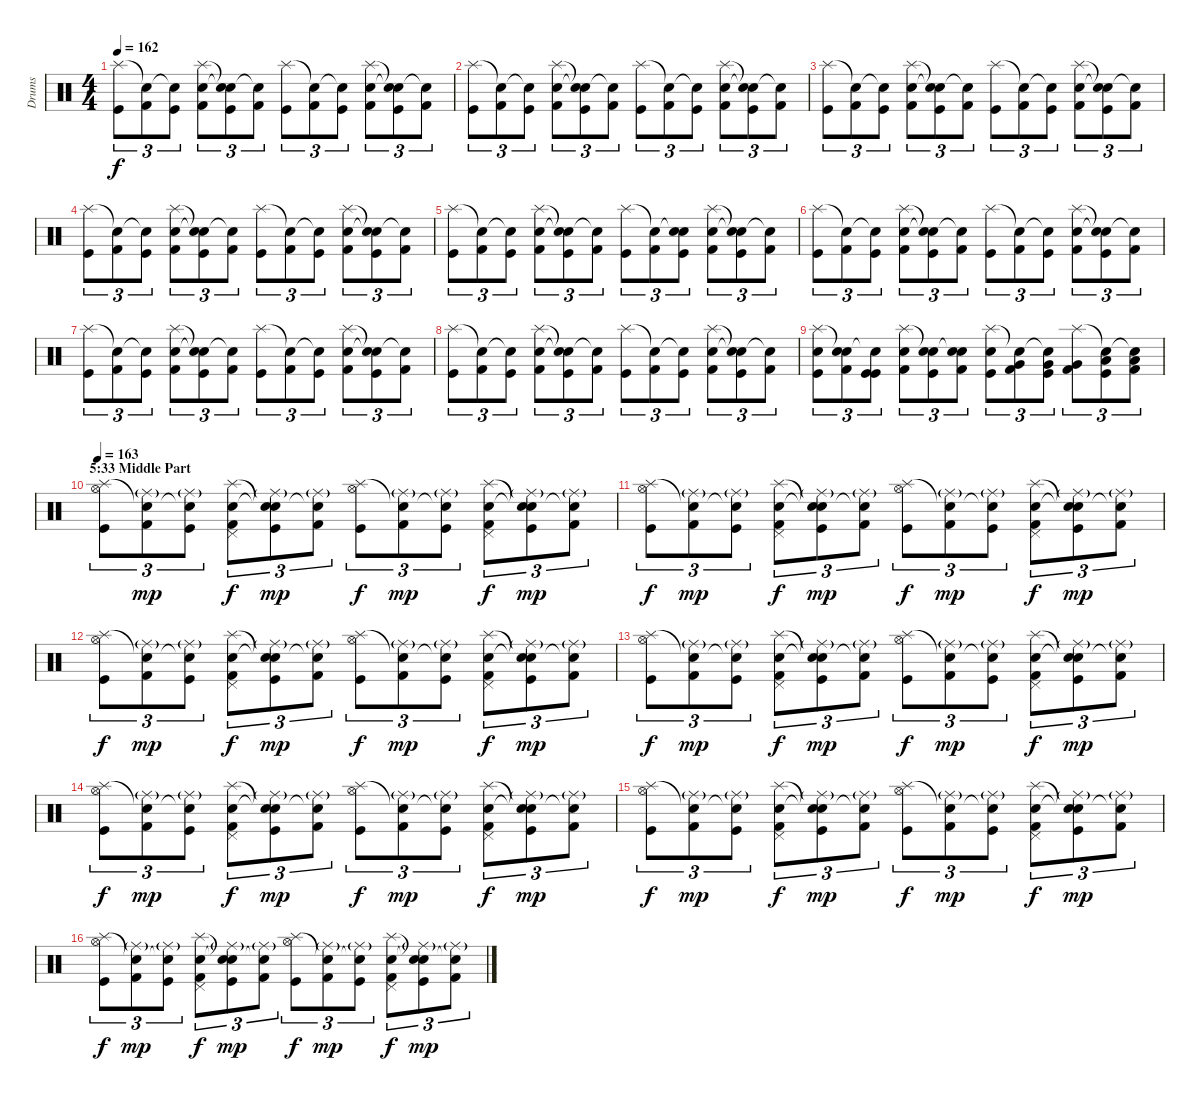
\track ("Drums" "Drums") {instrument percussion}
\staff {score}
\articulation defaults
\ts (4 4)
\tempo 162
\clef neutral
\ks c
("Splash (hit)" "Kick (hit)").8{tu (3 2) dy f} ("Snare (hit)"{t} "Kick (hit) 2").8{tu (3 2)} ("Snare (hit)"{t} "Kick (hit)").8{tu (3 2)} ("Splash (hit)" "Snare (hit) 2" "Kick (hit) 2").8{tu (3 2)} ("Snare (hit)"{t} "Snare (hit)"{t} "Kick (hit)").8{tu (3 2)} ("Snare (hit)"{t} "Kick (hit) 2").8{tu (3 2)} ("Splash (hit)" "Kick (hit)").8{tu (3 2)} ("Snare (hit)"{t} "Kick (hit) 2").8{tu (3 2)} ("Snare (hit)"{t} "Kick (hit)").8{tu (3 2)} ("Splash (hit)" "Snare (hit) 2" "Kick (hit) 2").8{tu (3 2)} ("Snare (hit)"{t} "Snare (hit)"{t} "Kick (hit)").8{tu (3 2)} ("Snare (hit)"{t} "Kick (hit) 2").8{tu (3 2)} |
("Splash (hit)" "Kick (hit)").8{tu (3 2)} ("Snare (hit)"{t} "Kick (hit) 2").8{tu (3 2)} ("Snare (hit)"{t} "Kick (hit)").8{tu (3 2)} ("Splash (hit)" "Snare (hit) 2" "Kick (hit) 2").8{tu (3 2)} ("Snare (hit)"{t} "Snare (hit)"{t} "Kick (hit)").8{tu (3 2)} ("Snare (hit)"{t} "Kick (hit) 2").8{tu (3 2)} ("Splash (hit)" "Kick (hit)").8{tu (3 2)} ("Snare (hit)"{t} "Kick (hit) 2").8{tu (3 2)} ("Snare (hit)"{t} "Kick (hit)").8{tu (3 2)} ("Splash (hit)" "Snare (hit) 2" "Kick (hit) 2").8{tu (3 2)} ("Snare (hit)"{t} "Snare (hit)"{t} "Kick (hit)").8{tu (3 2)} ("Snare (hit)"{t} "Kick (hit) 2").8{tu (3 2)} |
("Splash (hit)" "Kick (hit)").8{tu (3 2)} ("Snare (hit)"{t} "Kick (hit) 2").8{tu (3 2)} ("Snare (hit)"{t} "Kick (hit)").8{tu (3 2)} ("Splash (hit)" "Snare (hit) 2" "Kick (hit) 2").8{tu (3 2)} ("Snare (hit)"{t} "Snare (hit)"{t} "Kick (hit)").8{tu (3 2)} ("Snare (hit)"{t} "Kick (hit) 2").8{tu (3 2)} ("Splash (hit)" "Kick (hit)").8{tu (3 2)} ("Snare (hit)"{t} "Kick (hit) 2").8{tu (3 2)} ("Snare (hit)"{t} "Kick (hit)").8{tu (3 2)} ("Splash (hit)" "Snare (hit) 2" "Kick (hit) 2").8{tu (3 2)} ("Snare (hit)"{t} "Snare (hit)"{t} "Kick (hit)").8{tu (3 2)} ("Snare (hit)"{t} "Kick (hit) 2").8{tu (3 2)} |
("Splash (hit)" "Kick (hit)").8{tu (3 2)} ("Snare (hit)"{t} "Kick (hit) 2").8{tu (3 2)} ("Snare (hit)"{t} "Kick (hit)").8{tu (3 2)} ("Splash (hit)" "Snare (hit) 2" "Kick (hit) 2").8{tu (3 2)} ("Snare (hit)"{t} "Snare (hit)"{t} "Kick (hit)").8{tu (3 2)} ("Snare (hit)"{t} "Kick (hit) 2").8{tu (3 2)} ("Splash (hit)" "Kick (hit)").8{tu (3 2)} ("Snare (hit)"{t} "Kick (hit) 2").8{tu (3 2)} ("Snare (hit)"{t} "Kick (hit)").8{tu (3 2)} ("Splash (hit)" "Snare (hit) 2" "Kick (hit) 2").8{tu (3 2)} ("Snare (hit)"{t} "Snare (hit)"{t} "Kick (hit)").8{tu (3 2)} ("Snare (hit)"{t} "Kick (hit) 2").8{tu (3 2)} |
("Splash (hit)" "Kick (hit)").8{tu (3 2)} ("Snare (hit)"{t} "Kick (hit) 2").8{tu (3 2)} ("Snare (hit)"{t} "Kick (hit)").8{tu (3 2)} ("Splash (hit)" "Snare (hit) 2" "Kick (hit) 2").8{tu (3 2)} ("Snare (hit)"{t} "Snare (hit)"{t} "Kick (hit)").8{tu (3 2)} ("Snare (hit)"{t} "Kick (hit) 2").8{tu (3 2)} ("Splash (hit)" "Kick (hit)").8{tu (3 2)} ("Snare (hit)"{t} "Kick (hit) 2").8{tu (3 2)} ("Snare (hit)"{t} "Snare (hit) 2" "Kick (hit)").8{tu (3 2)} ("Splash (hit)" "Snare (hit) 2" "Kick (hit) 2").8{tu (3 2)} ("Snare (hit)"{t} "Snare (hit)"{t} "Kick (hit)").8{tu (3 2)} ("Snare (hit)"{t} "Kick (hit) 2").8{tu (3 2)} |
("Splash (hit)" "Kick (hit)").8{tu (3 2)} ("Snare (hit)"{t} "Kick (hit) 2").8{tu (3 2)} ("Snare (hit)"{t} "Kick (hit)").8{tu (3 2)} ("Splash (hit)" "Snare (hit) 2" "Kick (hit) 2").8{tu (3 2)} ("Snare (hit)"{t} "Snare (hit)"{t} "Kick (hit)").8{tu (3 2)} ("Snare (hit)"{t} "Kick (hit) 2").8{tu (3 2)} ("Splash (hit)" "Kick (hit)").8{tu (3 2)} ("Snare (hit)"{t} "Kick (hit) 2").8{tu (3 2)} ("Snare (hit)"{t} "Kick (hit)").8{tu (3 2)} ("Splash (hit)" "Snare (hit) 2" "Kick (hit) 2").8{tu (3 2)} ("Snare (hit)"{t} "Snare (hit)"{t} "Kick (hit)").8{tu (3 2)} ("Snare (hit)"{t} "Kick (hit) 2").8{tu (3 2)} |
("Splash (hit)" "Kick (hit)").8{tu (3 2)} ("Snare (hit)"{t} "Kick (hit) 2").8{tu (3 2)} ("Snare (hit)"{t} "Kick (hit)").8{tu (3 2)} ("Splash (hit)" "Snare (hit) 2" "Kick (hit) 2").8{tu (3 2)} ("Snare (hit)"{t} "Snare (hit)"{t} "Kick (hit)").8{tu (3 2)} ("Snare (hit)"{t} "Kick (hit) 2").8{tu (3 2)} ("Splash (hit)" "Kick (hit)").8{tu (3 2)} ("Snare (hit)"{t} "Kick (hit) 2").8{tu (3 2)} ("Snare (hit)"{t} "Kick (hit)").8{tu (3 2)} ("Splash (hit)" "Snare (hit) 2" "Kick (hit) 2").8{tu (3 2)} ("Snare (hit)"{t} "Snare (hit)"{t} "Kick (hit)").8{tu (3 2)} ("Snare (hit)"{t} "Kick (hit) 2").8{tu (3 2)} |
("Splash (hit)" "Kick (hit)").8{tu (3 2)} ("Snare (hit)"{t} "Kick (hit) 2").8{tu (3 2)} ("Snare (hit)"{t} "Kick (hit)").8{tu (3 2)} ("Splash (hit)" "Snare (hit) 2" "Kick (hit) 2").8{tu (3 2)} ("Snare (hit)"{t} "Snare (hit)"{t} "Kick (hit)").8{tu (3 2)} ("Snare (hit)"{t} "Kick (hit) 2").8{tu (3 2)} ("Splash (hit)" "Kick (hit)").8{tu (3 2)} ("Snare (hit)"{t} "Kick (hit) 2").8{tu (3 2)} ("Snare (hit)"{t} "Kick (hit)").8{tu (3 2)} ("Splash (hit)" "Snare (hit) 2" "Kick (hit) 2").8{tu (3 2)} ("Snare (hit)"{t} "Snare (hit)"{t} "Kick (hit)").8{tu (3 2)} ("Snare (hit)"{t} "Kick (hit) 2").8{tu (3 2)} |
("Splash (hit)" "Snare (hit) 2" "Kick (hit)").8{tu (3 2)} ("Snare (hit)"{t} "Snare (hit) 2" "Kick (hit) 2").8{tu (3 2)} ("Snare (hit)"{t} "Kick (hit)" "Kick (hit)").8{tu (3 2)} ("Splash (hit)" "Snare (hit) 2" "Kick (hit) 2").8{tu (3 2)} ("Snare (hit)"{t} "Snare (hit) 2" "Kick (hit)").8{tu (3 2)} ("Snare (hit)"{t} "Snare (hit) 2" "Kick (hit) 2").8{tu (3 2)} ("Splash (hit)" "Snare (hit) 2" "Kick (hit)").8{tu (3 2)} ("Snare (hit)"{t} "Very Low Tom (hit)" "Kick (hit) 2").8{tu (3 2)} ("Snare (hit)"{t} "Very Low Tom (hit)" "Kick (hit)").8{tu (3 2)} ("Splash (hit)" "Very Low Tom (hit)" "Kick (hit) 2").8{tu (3 2)} ("Snare (hit)"{t} "Low Floor Tom (hit)" "Kick (hit)").8{tu (3 2)} ("Snare (hit)"{t} "Low Floor Tom (hit)" "Kick (hit) 2").8{tu (3 2)} |
\section ("" "5:33 Middle Part")
\tempo 163
("Splash (hit)" "Hi-Hat (open)" "Kick (hit)").8{tu (3 2) volume 16} ("Snare (hit)"{t} "Ride (middle)"{g} "Kick (hit) 2").8{tu (3 2) dy mp} ("Snare (hit)"{t} "Ride (middle)"{g} "Kick (hit)").8{tu (3 2)} ("Splash (hit)" "Pedal Hi-Hat (hit)" "Snare (hit) 2" "Kick (hit) 2").8{tu (3 2) dy f} ("Snare (hit)"{t} "Ride (middle)"{g} "Snare (hit)"{t} "Kick (hit)").8{tu (3 2) dy mp} ("Snare (hit)"{t} "Ride (middle)"{g} "Kick (hit) 2").8{tu (3 2)} ("Splash (hit)" "Hi-Hat (open)" "Kick (hit)").8{tu (3 2) dy f} ("Snare (hit)"{t} "Ride (middle)"{g} "Kick (hit) 2").8{tu (3 2) dy mp} ("Snare (hit)"{t} "Ride (middle)"{g} "Kick (hit)").8{tu (3 2)} ("Splash (hit)" "Pedal Hi-Hat (hit)" "Snare (hit) 2" "Kick (hit) 2").8{tu (3 2) dy f} ("Snare (hit)"{t} "Ride (middle)"{g} "Snare (hit)"{t} "Kick (hit)").8{tu (3 2) dy mp} ("Snare (hit)"{t} "Ride (middle)"{g} "Kick (hit) 2").8{tu (3 2)} |
("Splash (hit)" "Hi-Hat (open)" "Kick (hit)").8{tu (3 2) dy f} ("Snare (hit)"{t} "Ride (middle)"{g} "Kick (hit) 2").8{tu (3 2) dy mp} ("Snare (hit)"{t} "Ride (middle)"{g} "Kick (hit)").8{tu (3 2)} ("Splash (hit)" "Pedal Hi-Hat (hit)" "Snare (hit) 2" "Kick (hit) 2").8{tu (3 2) dy f} ("Snare (hit)"{t} "Ride (middle)"{g} "Snare (hit)"{t} "Kick (hit)").8{tu (3 2) dy mp} ("Snare (hit)"{t} "Ride (middle)"{g} "Kick (hit) 2").8{tu (3 2)} ("Splash (hit)" "Hi-Hat (open)" "Kick (hit)").8{tu (3 2) dy f} ("Snare (hit)"{t} "Ride (middle)"{g} "Kick (hit) 2").8{tu (3 2) dy mp} ("Snare (hit)"{t} "Ride (middle)"{g} "Kick (hit)").8{tu (3 2)} ("Splash (hit)" "Pedal Hi-Hat (hit)" "Snare (hit) 2" "Kick (hit) 2").8{tu (3 2) dy f} ("Snare (hit)"{t} "Ride (middle)"{g} "Snare (hit)"{t} "Kick (hit)").8{tu (3 2) dy mp} ("Snare (hit)"{t} "Ride (middle)"{g} "Kick (hit) 2").8{tu (3 2)} |
("Splash (hit)" "Hi-Hat (open)" "Kick (hit)").8{tu (3 2) dy f} ("Snare (hit)"{t} "Ride (middle)"{g} "Kick (hit) 2").8{tu (3 2) dy mp} ("Snare (hit)"{t} "Ride (middle)"{g} "Kick (hit)").8{tu (3 2)} ("Splash (hit)" "Pedal Hi-Hat (hit)" "Snare (hit) 2" "Kick (hit) 2").8{tu (3 2) dy f} ("Snare (hit)"{t} "Ride (middle)"{g} "Snare (hit)"{t} "Kick (hit)").8{tu (3 2) dy mp} ("Snare (hit)"{t} "Ride (middle)"{g} "Kick (hit) 2").8{tu (3 2)} ("Splash (hit)" "Hi-Hat (open)" "Kick (hit)").8{tu (3 2) dy f} ("Snare (hit)"{t} "Ride (middle)"{g} "Kick (hit) 2").8{tu (3 2) dy mp} ("Snare (hit)"{t} "Ride (middle)"{g} "Kick (hit)").8{tu (3 2)} ("Splash (hit)" "Pedal Hi-Hat (hit)" "Snare (hit) 2" "Kick (hit) 2").8{tu (3 2) dy f} ("Snare (hit)"{t} "Ride (middle)"{g} "Snare (hit)"{t} "Kick (hit)").8{tu (3 2) dy mp} ("Snare (hit)"{t} "Ride (middle)"{g} "Kick (hit) 2").8{tu (3 2)} |
("Splash (hit)" "Hi-Hat (open)" "Kick (hit)").8{tu (3 2) dy f} ("Snare (hit)"{t} "Ride (middle)"{g} "Kick (hit) 2").8{tu (3 2) dy mp} ("Snare (hit)"{t} "Ride (middle)"{g} "Kick (hit)").8{tu (3 2)} ("Splash (hit)" "Pedal Hi-Hat (hit)" "Snare (hit) 2" "Kick (hit) 2").8{tu (3 2) dy f} ("Snare (hit)"{t} "Ride (middle)"{g} "Snare (hit)"{t} "Kick (hit)").8{tu (3 2) dy mp} ("Snare (hit)"{t} "Ride (middle)"{g} "Kick (hit) 2").8{tu (3 2)} ("Splash (hit)" "Hi-Hat (open)" "Kick (hit)").8{tu (3 2) dy f} ("Snare (hit)"{t} "Ride (middle)"{g} "Kick (hit) 2").8{tu (3 2) dy mp} ("Snare (hit)"{t} "Ride (middle)"{g} "Kick (hit)").8{tu (3 2)} ("Splash (hit)" "Pedal Hi-Hat (hit)" "Snare (hit) 2" "Kick (hit) 2").8{tu (3 2) dy f} ("Snare (hit)"{t} "Ride (middle)"{g} "Snare (hit)"{t} "Kick (hit)").8{tu (3 2) dy mp} ("Snare (hit)"{t} "Ride (middle)"{g} "Kick (hit) 2").8{tu (3 2)} |
("Splash (hit)" "Hi-Hat (open)" "Kick (hit)").8{tu (3 2) dy f} ("Snare (hit)"{t} "Ride (middle)"{g} "Kick (hit) 2").8{tu (3 2) dy mp} ("Snare (hit)"{t} "Ride (middle)"{g} "Kick (hit)").8{tu (3 2)} ("Splash (hit)" "Pedal Hi-Hat (hit)" "Snare (hit) 2" "Kick (hit) 2").8{tu (3 2) dy f} ("Snare (hit)"{t} "Ride (middle)"{g} "Snare (hit)"{t} "Kick (hit)").8{tu (3 2) dy mp} ("Snare (hit)"{t} "Ride (middle)"{g} "Kick (hit) 2").8{tu (3 2)} ("Splash (hit)" "Hi-Hat (open)" "Kick (hit)").8{tu (3 2) dy f} ("Snare (hit)"{t} "Ride (middle)"{g} "Kick (hit) 2").8{tu (3 2) dy mp} ("Snare (hit)"{t} "Ride (middle)"{g} "Kick (hit)").8{tu (3 2)} ("Splash (hit)" "Pedal Hi-Hat (hit)" "Snare (hit) 2" "Kick (hit) 2").8{tu (3 2) dy f} ("Snare (hit)"{t} "Ride (middle)"{g} "Snare (hit)"{t} "Kick (hit)").8{tu (3 2) dy mp} ("Snare (hit)"{t} "Ride (middle)"{g} "Kick (hit) 2").8{tu (3 2)} |
("Splash (hit)" "Hi-Hat (open)" "Kick (hit)").8{tu (3 2) dy f} ("Snare (hit)"{t} "Ride (middle)"{g} "Kick (hit) 2").8{tu (3 2) dy mp} ("Snare (hit)"{t} "Ride (middle)"{g} "Kick (hit)").8{tu (3 2)} ("Splash (hit)" "Pedal Hi-Hat (hit)" "Snare (hit) 2" "Kick (hit) 2").8{tu (3 2) dy f} ("Snare (hit)"{t} "Ride (middle)"{g} "Snare (hit)"{t} "Kick (hit)").8{tu (3 2) dy mp} ("Snare (hit)"{t} "Ride (middle)"{g} "Kick (hit) 2").8{tu (3 2)} ("Splash (hit)" "Hi-Hat (open)" "Kick (hit)").8{tu (3 2) dy f} ("Snare (hit)"{t} "Ride (middle)"{g} "Kick (hit) 2").8{tu (3 2) dy mp} ("Snare (hit)"{t} "Ride (middle)"{g} "Kick (hit)").8{tu (3 2)} ("Splash (hit)" "Pedal Hi-Hat (hit)" "Snare (hit) 2" "Kick (hit) 2").8{tu (3 2) dy f} ("Snare (hit)"{t} "Ride (middle)"{g} "Snare (hit)"{t} "Kick (hit)").8{tu (3 2) dy mp} ("Snare (hit)"{t} "Ride (middle)"{g} "Kick (hit) 2").8{tu (3 2)} |
("Splash (hit)" "Hi-Hat (open)" "Kick (hit)").8{tu (3 2) dy f} ("Snare (hit)"{t} "Ride (middle)"{g} "Kick (hit) 2").8{tu (3 2) dy mp} ("Snare (hit)"{t} "Ride (middle)"{g} "Kick (hit)").8{tu (3 2)} ("Splash (hit)" "Pedal Hi-Hat (hit)" "Snare (hit) 2" "Kick (hit) 2").8{tu (3 2) dy f} ("Snare (hit)"{t} "Ride (middle)"{g} "Snare (hit)"{t} "Kick (hit)").8{tu (3 2) dy mp} ("Snare (hit)"{t} "Ride (middle)"{g} "Kick (hit) 2").8{tu (3 2)} ("Splash (hit)" "Hi-Hat (open)" "Kick (hit)").8{tu (3 2) dy f} ("Snare (hit)"{t} "Ride (middle)"{g} "Kick (hit) 2").8{tu (3 2) dy mp} ("Snare (hit)"{t} "Ride (middle)"{g} "Kick (hit)").8{tu (3 2)} ("Splash (hit)" "Pedal Hi-Hat (hit)" "Snare (hit) 2" "Kick (hit) 2").8{tu (3 2) dy f} ("Snare (hit)"{t} "Ride (middle)"{g} "Snare (hit)"{t} "Kick (hit)").8{tu (3 2) dy mp} ("Snare (hit)"{t} "Ride (middle)"{g} "Kick (hit) 2").8{tu (3 2)}
